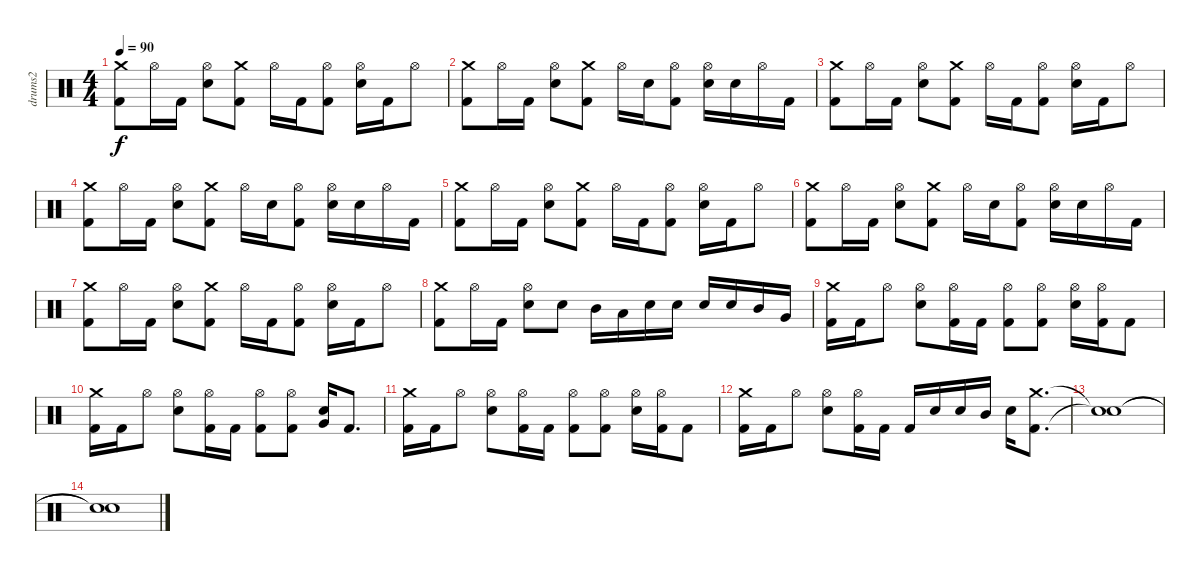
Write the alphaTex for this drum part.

\track ("drums2" "drums2") {instrument percussion}
\staff {score}
\articulation defaults
\ts (4 4)
\tempo 90
\clef neutral
\ks c
("Crash medium (hit)" "Kick (hit) 2").8{dy f} "Hi-Hat (open)".16 "Kick (hit) 2".16 ("Hi-Hat (open)" "Electric Snare (hit)").8 ("Crash medium (hit)" "Kick (hit) 2").8 "Hi-Hat (open)".16 "Kick (hit) 2".16 ("Hi-Hat (open)" "Kick (hit) 2").8 ("Hi-Hat (open)" "Electric Snare (hit)").16 "Kick (hit) 2".16 "Hi-Hat (open)".8 |
("Crash medium (hit)" "Kick (hit) 2").8 "Hi-Hat (open)".16 "Kick (hit) 2".16 ("Hi-Hat (open)" "Electric Snare (hit)").8 ("Crash medium (hit)" "Kick (hit) 2").8 "Hi-Hat (open)".16 "Electric Snare (hit)".16 ("Hi-Hat (open)" "Kick (hit) 2").8 ("Hi-Hat (open)" "Electric Snare (hit)").16 "Electric Snare (hit)".16 "Hi-Hat (open)".16 "Kick (hit) 2".16 |
("Crash medium (hit)" "Kick (hit) 2").8 "Hi-Hat (open)".16 "Kick (hit) 2".16 ("Hi-Hat (open)" "Electric Snare (hit)").8 ("Crash medium (hit)" "Kick (hit) 2").8 "Hi-Hat (open)".16 "Kick (hit) 2".16 ("Hi-Hat (open)" "Kick (hit) 2").8 ("Hi-Hat (open)" "Electric Snare (hit)").16 "Kick (hit) 2".16 "Hi-Hat (open)".8 |
("Crash medium (hit)" "Kick (hit) 2").8 "Hi-Hat (open)".16 "Kick (hit) 2".16 ("Hi-Hat (open)" "Electric Snare (hit)").8 ("Crash medium (hit)" "Kick (hit) 2").8 "Hi-Hat (open)".16 "Electric Snare (hit)".16 ("Hi-Hat (open)" "Kick (hit) 2").8 ("Hi-Hat (open)" "Electric Snare (hit)").16 "Electric Snare (hit)".16 "Hi-Hat (open)".16 "Kick (hit) 2".16 |
("Crash medium (hit)" "Kick (hit) 2").8 "Hi-Hat (open)".16 "Kick (hit) 2".16 ("Hi-Hat (open)" "Electric Snare (hit)").8 ("Crash medium (hit)" "Kick (hit) 2").8 "Hi-Hat (open)".16 "Kick (hit) 2".16 ("Hi-Hat (open)" "Kick (hit) 2").8 ("Hi-Hat (open)" "Electric Snare (hit)").16 "Kick (hit) 2".16 "Hi-Hat (open)".8 |
("Crash medium (hit)" "Kick (hit) 2").8 "Hi-Hat (open)".16 "Kick (hit) 2".16 ("Hi-Hat (open)" "Electric Snare (hit)").8 ("Crash medium (hit)" "Kick (hit) 2").8 "Hi-Hat (open)".16 "Electric Snare (hit)".16 ("Hi-Hat (open)" "Kick (hit) 2").8 ("Hi-Hat (open)" "Electric Snare (hit)").16 "Electric Snare (hit)".16 "Hi-Hat (open)".16 "Kick (hit) 2".16 |
("Crash medium (hit)" "Kick (hit) 2").8 "Hi-Hat (open)".16 "Kick (hit) 2".16 ("Hi-Hat (open)" "Electric Snare (hit)").8 ("Crash medium (hit)" "Kick (hit) 2").8 "Hi-Hat (open)".16 "Kick (hit) 2".16 ("Hi-Hat (open)" "Kick (hit) 2").8 ("Hi-Hat (open)" "Electric Snare (hit)").16 "Kick (hit) 2".16 "Hi-Hat (open)".8 |
("Crash medium (hit)" "Kick (hit) 2").8 "Hi-Hat (open)".16 "Kick (hit) 2".16 ("Hi-Hat (open)" "Electric Snare (hit)").8 "Electric Snare (hit)".8 "Mid Tom (hit)".16 "Low Tom (hit)".16 "Electric Snare (hit)".16 "Electric Snare (hit)".16 "Electric Snare (hit)".16 "Electric Snare (hit)".16 "Mid Tom (hit)".16 "Very Low Tom (hit)".16 |
("Crash medium (hit)" "Kick (hit) 2").16 "Kick (hit) 2".16 "Hi-Hat (open)".8 ("Hi-Hat (open)" "Electric Snare (hit)").8 ("Hi-Hat (open)" "Kick (hit) 2").16 "Kick (hit) 2".16 ("Hi-Hat (open)" "Kick (hit) 2").8 ("Hi-Hat (open)" "Kick (hit) 2").8 ("Hi-Hat (open)" "Electric Snare (hit)").16 ("Hi-Hat (open)" "Kick (hit) 2").16 "Kick (hit) 2".8 |
("Crash medium (hit)" "Kick (hit) 2").16 "Kick (hit) 2".16 "Hi-Hat (open)".8 ("Hi-Hat (open)" "Electric Snare (hit)").8 ("Hi-Hat (open)" "Kick (hit) 2").16 "Kick (hit) 2".16 ("Hi-Hat (open)" "Kick (hit) 2").8 ("Hi-Hat (open)" "Kick (hit) 2").8 ("Electric Snare (hit)" "Very Low Tom (hit)").16 "Kick (hit) 2".8{d} |
("Crash medium (hit)" "Kick (hit) 2").16 "Kick (hit) 2".16 "Hi-Hat (open)".8 ("Hi-Hat (open)" "Electric Snare (hit)").8 ("Hi-Hat (open)" "Kick (hit) 2").16 "Kick (hit) 2".16 ("Hi-Hat (open)" "Kick (hit) 2").8 ("Hi-Hat (open)" "Kick (hit) 2").8 ("Hi-Hat (open)" "Electric Snare (hit)").16 ("Hi-Hat (open)" "Kick (hit) 2").16 "Kick (hit) 2".8 |
("Crash medium (hit)" "Kick (hit) 2").16 "Kick (hit) 2".16 "Hi-Hat (open)".8 ("Hi-Hat (open)" "Electric Snare (hit)").8 ("Hi-Hat (open)" "Kick (hit) 2").16 "Kick (hit) 2".16 "Kick (hit) 2".16 "Electric Snare (hit)".16 "Electric Snare (hit)".16 "Mid Tom (hit)".16 "Electric Snare (hit)".16 ("Crash medium (hit)" "Kick (hit) 2").8{d} |
("Snare (hit)"{t} "Snare (hit)"{t}).1 |
("Snare (hit)"{t} "Snare (hit)"{t}).1
